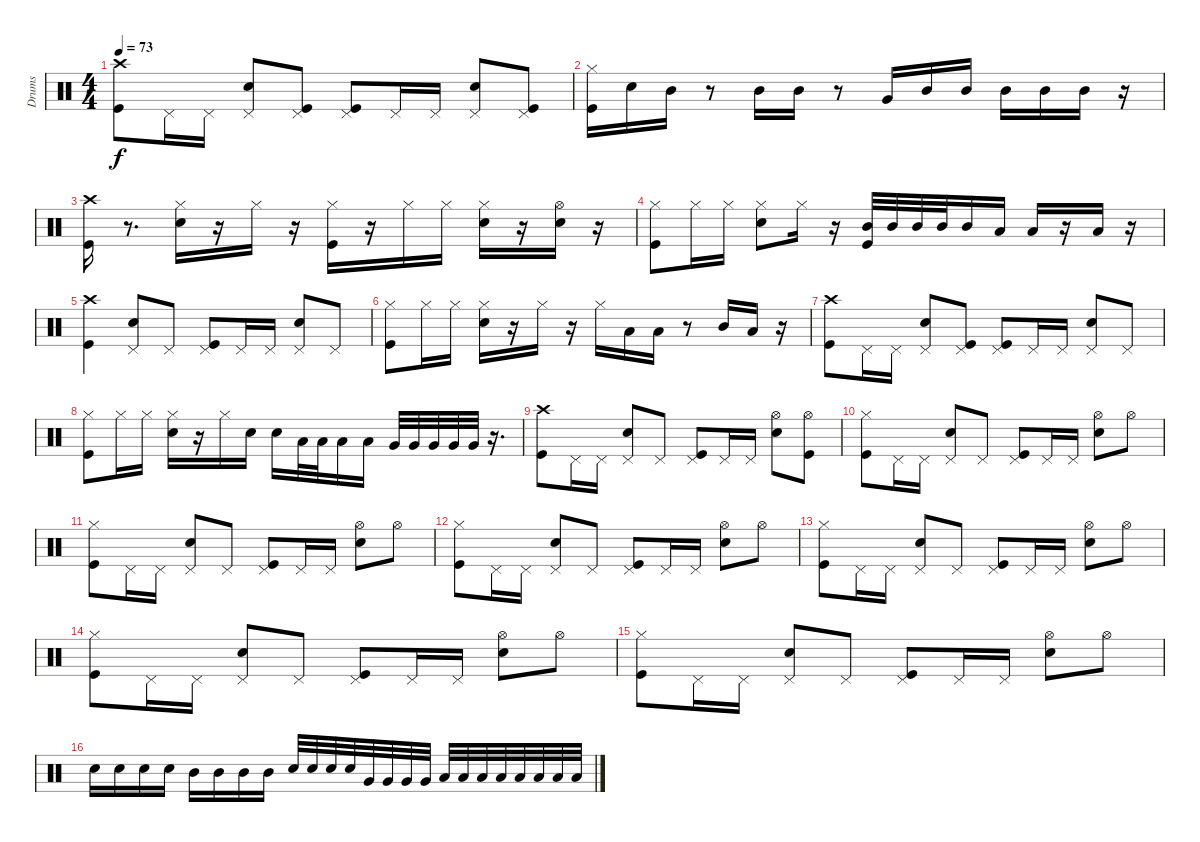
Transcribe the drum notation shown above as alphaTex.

\track ("Drums" "Drums") {instrument percussion}
\staff {score}
\articulation defaults
\ts (4 4)
\tempo 73
\clef neutral
\ks c
("Crash high (hit)" "Kick (hit)").8{dy f} "Pedal Hi-Hat (hit)".16 "Pedal Hi-Hat (hit)".16 ("Snare (hit) 2" "Pedal Hi-Hat (hit)").8 ("Kick (hit)" "Pedal Hi-Hat (hit)").8 ("Kick (hit)" "Pedal Hi-Hat (hit)").8 "Pedal Hi-Hat (hit)".16 "Pedal Hi-Hat (hit)".16 ("Snare (hit) 2" "Pedal Hi-Hat (hit)").8 ("Pedal Hi-Hat (hit)" "Kick (hit)").8 |
("Hi-Hat (closed)" "Kick (hit)").16 "Snare (hit) 2".16 "Mid Tom (hit)".16 r.8 "Mid Tom (hit)".16 "Mid Tom (hit)".16 r.8 "Very Low Tom (hit)".16 "Mid Tom (hit)".16 "Mid Tom (hit)".16 "Mid Tom (hit)".16 "Mid Tom (hit)".16 "Mid Tom (hit)".16 r.16 |
("Kick (hit)" "Crash high (hit)").16 r.8{d} ("Snare (hit) 2" "Hi-Hat (closed)").16 r.16 "Hi-Hat (closed)".16 r.16 ("Kick (hit)" "Hi-Hat (closed)").16 r.16 "Hi-Hat (closed)".16 "Hi-Hat (closed)".16 ("Snare (hit) 2" "Hi-Hat (closed)").16 r.16 ("Snare (hit) 2" "Hi-Hat (open)").16 r.16 |
("Hi-Hat (closed)" "Kick (hit)").8 "Hi-Hat (closed)".16 "Hi-Hat (closed)".16 ("Hi-Hat (closed)" "Snare (hit) 2").8 "Hi-Hat (closed)".16 r.16 ("Mid Tom (hit)" "Kick (hit)").32 "Mid Tom (hit)".32 "Mid Tom (hit)".32 "Mid Tom (hit)".32 "Mid Tom (hit)".16 "Low Tom (hit)".16 "Low Tom (hit)".16 r.16 "Low Floor Tom (hit)".16 r.16 |
("Crash high (hit)" "Kick (hit)").4 ("Snare (hit) 2" "Pedal Hi-Hat (hit)").8 "Pedal Hi-Hat (hit)".8 ("Kick (hit)" "Pedal Hi-Hat (hit)").8 "Pedal Hi-Hat (hit)".16 "Pedal Hi-Hat (hit)".16 ("Snare (hit) 2" "Pedal Hi-Hat (hit)").8 "Pedal Hi-Hat (hit)".8 |
("Kick (hit)" "Hi-Hat (closed)").8 "Hi-Hat (closed)".16 "Hi-Hat (closed)".16 ("Snare (hit) 2" "Hi-Hat (closed)").16 r.16 "Hi-Hat (closed)".16 r.16 "Hi-Hat (closed)".16 "Low Tom (hit)".16 "Low Tom (hit)".16 r.8 "Mid Tom (hit)".16 "Low Tom (hit)".16 r.16 |
("Crash high (hit)" "Kick (hit)").8 "Pedal Hi-Hat (hit)".16 "Pedal Hi-Hat (hit)".16 ("Snare (hit) 2" "Pedal Hi-Hat (hit)").8 ("Kick (hit)" "Pedal Hi-Hat (hit)").8 ("Kick (hit)" "Pedal Hi-Hat (hit)").8 "Pedal Hi-Hat (hit)".16 "Pedal Hi-Hat (hit)".16 ("Snare (hit) 2" "Pedal Hi-Hat (hit)").8 "Pedal Hi-Hat (hit)".8 |
("Kick (hit)" "Hi-Hat (closed)").8 "Hi-Hat (closed)".16 "Hi-Hat (closed)".16 ("Snare (hit) 2" "Hi-Hat (closed)").16 r.16 "Hi-Hat (closed)".16 "Snare (hit) 2".16 "Snare (hit) 2".16 "Low Tom (hit)".32 "Low Tom (hit)".32 "Low Tom (hit)".16 "Low Tom (hit)".16 "Very Low Tom (hit)".32 "Very Low Tom (hit)".32 "Very Low Tom (hit)".32 "Very Low Tom (hit)".32 "Very Low Tom (hit)".32 r.16{d} |
("Crash high (hit)" "Kick (hit)").8 "Pedal Hi-Hat (hit)".16 "Pedal Hi-Hat (hit)".16 ("Snare (hit) 2" "Pedal Hi-Hat (hit)").8 "Pedal Hi-Hat (hit)".8 ("Kick (hit)" "Pedal Hi-Hat (hit)").8 "Pedal Hi-Hat (hit)".16 "Pedal Hi-Hat (hit)".16 ("Hi-Hat (open)" "Snare (hit) 2").8 ("Kick (hit)" "Hi-Hat (open)").8 |
("Hi-Hat (closed)" "Kick (hit)").8 "Pedal Hi-Hat (hit)".16 "Pedal Hi-Hat (hit)".16 ("Snare (hit) 2" "Pedal Hi-Hat (hit)").8 "Pedal Hi-Hat (hit)".8 ("Kick (hit)" "Pedal Hi-Hat (hit)").8 "Pedal Hi-Hat (hit)".16 "Pedal Hi-Hat (hit)".16 ("Hi-Hat (open)" "Snare (hit) 2").8 "Hi-Hat (open)".8 |
("Hi-Hat (closed)" "Kick (hit)").8 "Pedal Hi-Hat (hit)".16 "Pedal Hi-Hat (hit)".16 ("Snare (hit) 2" "Pedal Hi-Hat (hit)").8 "Pedal Hi-Hat (hit)".8 ("Kick (hit)" "Pedal Hi-Hat (hit)").8 "Pedal Hi-Hat (hit)".16 "Pedal Hi-Hat (hit)".16 ("Hi-Hat (open)" "Snare (hit) 2").8 "Hi-Hat (open)".8 |
("Hi-Hat (closed)" "Kick (hit)").8 "Pedal Hi-Hat (hit)".16 "Pedal Hi-Hat (hit)".16 ("Snare (hit) 2" "Pedal Hi-Hat (hit)").8 "Pedal Hi-Hat (hit)".8 ("Kick (hit)" "Pedal Hi-Hat (hit)").8 "Pedal Hi-Hat (hit)".16 "Pedal Hi-Hat (hit)".16 ("Hi-Hat (open)" "Snare (hit) 2").8 "Hi-Hat (open)".8 |
("Hi-Hat (closed)" "Kick (hit)").8 "Pedal Hi-Hat (hit)".16 "Pedal Hi-Hat (hit)".16 ("Snare (hit) 2" "Pedal Hi-Hat (hit)").8 "Pedal Hi-Hat (hit)".8 ("Kick (hit)" "Pedal Hi-Hat (hit)").8 "Pedal Hi-Hat (hit)".16 "Pedal Hi-Hat (hit)".16 ("Hi-Hat (open)" "Snare (hit) 2").8 "Hi-Hat (open)".8 |
("Hi-Hat (closed)" "Kick (hit)").8 "Pedal Hi-Hat (hit)".16 "Pedal Hi-Hat (hit)".16 ("Snare (hit) 2" "Pedal Hi-Hat (hit)").8 "Pedal Hi-Hat (hit)".8 ("Kick (hit)" "Pedal Hi-Hat (hit)").8 "Pedal Hi-Hat (hit)".16 "Pedal Hi-Hat (hit)".16 ("Hi-Hat (open)" "Snare (hit) 2").8 "Hi-Hat (open)".8 |
("Hi-Hat (closed)" "Kick (hit)").8 "Pedal Hi-Hat (hit)".16 "Pedal Hi-Hat (hit)".16 ("Snare (hit) 2" "Pedal Hi-Hat (hit)").8 "Pedal Hi-Hat (hit)".8 ("Kick (hit)" "Pedal Hi-Hat (hit)").8 "Pedal Hi-Hat (hit)".16 "Pedal Hi-Hat (hit)".16 ("Hi-Hat (open)" "Snare (hit) 2").8 "Hi-Hat (open)".8 |
"Snare (hit) 2".16 "Snare (hit) 2".16 "Snare (hit) 2".16 "Snare (hit) 2".16 "Mid Tom (hit)".16 "Mid Tom (hit)".16 "Mid Tom (hit)".16 "Mid Tom (hit)".16 "Electric Snare (hit)".32 "Electric Snare (hit)".32 "Electric Snare (hit)".32 "Electric Snare (hit)".32 "Very Low Tom (hit)".32 "Very Low Tom (hit)".32 "Very Low Tom (hit)".32 "Very Low Tom (hit)".32 "Low Tom (hit)".32 "Low Tom (hit)".32 "Low Tom (hit)".32 "Low Tom (hit)".32 "Low Floor Tom (hit)".32 "Low Floor Tom (hit)".32 "Low Floor Tom (hit)".32 "Low Floor Tom (hit)".32
